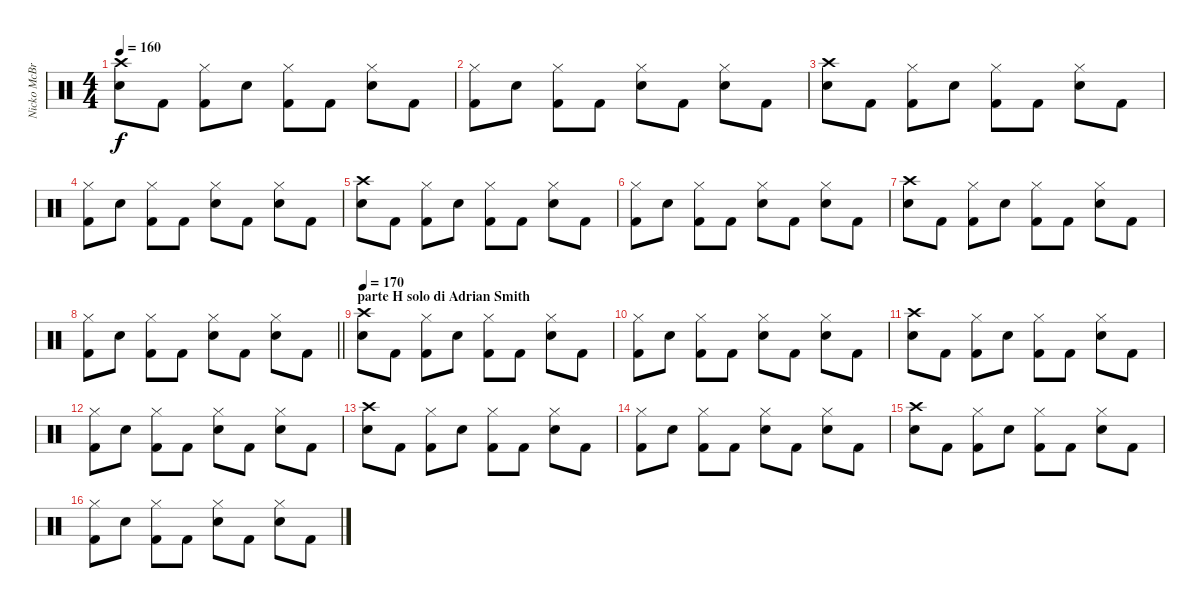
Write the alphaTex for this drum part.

\track ("Nicko McBrain" "Nicko McBr") {instrument percussion}
\staff {score}
\articulation defaults
\ts (4 4)
\tempo 160
\clef neutral
\ks c
("Crash high (hit)" "Snare (hit) 2").8{dy f} "Kick (hit) 2".8 ("Hi-Hat (closed)" "Kick (hit) 2").8 "Snare (hit) 2".8 ("Hi-Hat (closed)" "Kick (hit) 2").8 "Kick (hit) 2".8 ("Hi-Hat (closed)" "Snare (hit) 2").8 "Kick (hit) 2".8 |
("Hi-Hat (closed)" "Kick (hit) 2").8 "Snare (hit) 2".8 ("Hi-Hat (closed)" "Kick (hit) 2").8 "Kick (hit) 2".8 ("Hi-Hat (closed)" "Snare (hit) 2").8 "Kick (hit) 2".8 ("Hi-Hat (closed)" "Snare (hit) 2").8 "Kick (hit) 2".8 |
("Crash high (hit)" "Snare (hit) 2").8 "Kick (hit) 2".8 ("Hi-Hat (closed)" "Kick (hit) 2").8 "Snare (hit) 2".8 ("Hi-Hat (closed)" "Kick (hit) 2").8 "Kick (hit) 2".8 ("Hi-Hat (closed)" "Snare (hit) 2").8 "Kick (hit) 2".8 |
("Hi-Hat (closed)" "Kick (hit) 2").8 "Snare (hit) 2".8 ("Hi-Hat (closed)" "Kick (hit) 2").8 "Kick (hit) 2".8 ("Hi-Hat (closed)" "Snare (hit) 2").8 "Kick (hit) 2".8 ("Hi-Hat (closed)" "Snare (hit) 2").8 "Kick (hit) 2".8 |
("Crash high (hit)" "Snare (hit) 2").8 "Kick (hit) 2".8 ("Hi-Hat (closed)" "Kick (hit) 2").8 "Snare (hit) 2".8 ("Hi-Hat (closed)" "Kick (hit) 2").8 "Kick (hit) 2".8 ("Hi-Hat (closed)" "Snare (hit) 2").8 "Kick (hit) 2".8 |
("Hi-Hat (closed)" "Kick (hit) 2").8 "Snare (hit) 2".8 ("Hi-Hat (closed)" "Kick (hit) 2").8 "Kick (hit) 2".8 ("Hi-Hat (closed)" "Snare (hit) 2").8 "Kick (hit) 2".8 ("Hi-Hat (closed)" "Snare (hit) 2").8 "Kick (hit) 2".8 |
("Crash high (hit)" "Snare (hit) 2").8 "Kick (hit) 2".8 ("Hi-Hat (closed)" "Kick (hit) 2").8 "Snare (hit) 2".8 ("Hi-Hat (closed)" "Kick (hit) 2").8 "Kick (hit) 2".8 ("Hi-Hat (closed)" "Snare (hit) 2").8 "Kick (hit) 2".8 |
\barLineRight lightlight
("Hi-Hat (closed)" "Kick (hit) 2").8 "Snare (hit) 2".8 ("Hi-Hat (closed)" "Kick (hit) 2").8 "Kick (hit) 2".8 ("Hi-Hat (closed)" "Snare (hit) 2").8 "Kick (hit) 2".8 ("Hi-Hat (closed)" "Snare (hit) 2").8 "Kick (hit) 2".8 |
\section ("" "parte H solo di Adrian Smith")
\tempo 170
("Crash high (hit)" "Snare (hit) 2").8 "Kick (hit) 2".8 ("Hi-Hat (closed)" "Kick (hit) 2").8 "Snare (hit) 2".8 ("Hi-Hat (closed)" "Kick (hit) 2").8 "Kick (hit) 2".8 ("Hi-Hat (closed)" "Snare (hit) 2").8 "Kick (hit) 2".8 |
("Hi-Hat (closed)" "Kick (hit) 2").8 "Snare (hit) 2".8 ("Hi-Hat (closed)" "Kick (hit) 2").8 "Kick (hit) 2".8 ("Hi-Hat (closed)" "Snare (hit) 2").8 "Kick (hit) 2".8 ("Hi-Hat (closed)" "Snare (hit) 2").8 "Kick (hit) 2".8 |
("Crash high (hit)" "Snare (hit) 2").8 "Kick (hit) 2".8 ("Hi-Hat (closed)" "Kick (hit) 2").8 "Snare (hit) 2".8 ("Hi-Hat (closed)" "Kick (hit) 2").8 "Kick (hit) 2".8 ("Hi-Hat (closed)" "Snare (hit) 2").8 "Kick (hit) 2".8 |
("Hi-Hat (closed)" "Kick (hit) 2").8 "Snare (hit) 2".8 ("Hi-Hat (closed)" "Kick (hit) 2").8 "Kick (hit) 2".8 ("Hi-Hat (closed)" "Snare (hit) 2").8 "Kick (hit) 2".8 ("Hi-Hat (closed)" "Snare (hit) 2").8 "Kick (hit) 2".8 |
("Crash high (hit)" "Snare (hit) 2").8 "Kick (hit) 2".8 ("Hi-Hat (closed)" "Kick (hit) 2").8 "Snare (hit) 2".8 ("Hi-Hat (closed)" "Kick (hit) 2").8 "Kick (hit) 2".8 ("Hi-Hat (closed)" "Snare (hit) 2").8 "Kick (hit) 2".8 |
("Hi-Hat (closed)" "Kick (hit) 2").8 "Snare (hit) 2".8 ("Hi-Hat (closed)" "Kick (hit) 2").8 "Kick (hit) 2".8 ("Hi-Hat (closed)" "Snare (hit) 2").8 "Kick (hit) 2".8 ("Hi-Hat (closed)" "Snare (hit) 2").8 "Kick (hit) 2".8 |
("Crash high (hit)" "Snare (hit) 2").8 "Kick (hit) 2".8 ("Hi-Hat (closed)" "Kick (hit) 2").8 "Snare (hit) 2".8 ("Hi-Hat (closed)" "Kick (hit) 2").8 "Kick (hit) 2".8 ("Hi-Hat (closed)" "Snare (hit) 2").8 "Kick (hit) 2".8 |
("Hi-Hat (closed)" "Kick (hit) 2").8 "Snare (hit) 2".8 ("Hi-Hat (closed)" "Kick (hit) 2").8 "Kick (hit) 2".8 ("Hi-Hat (closed)" "Snare (hit) 2").8 "Kick (hit) 2".8 ("Hi-Hat (closed)" "Snare (hit) 2").8 "Kick (hit) 2".8
